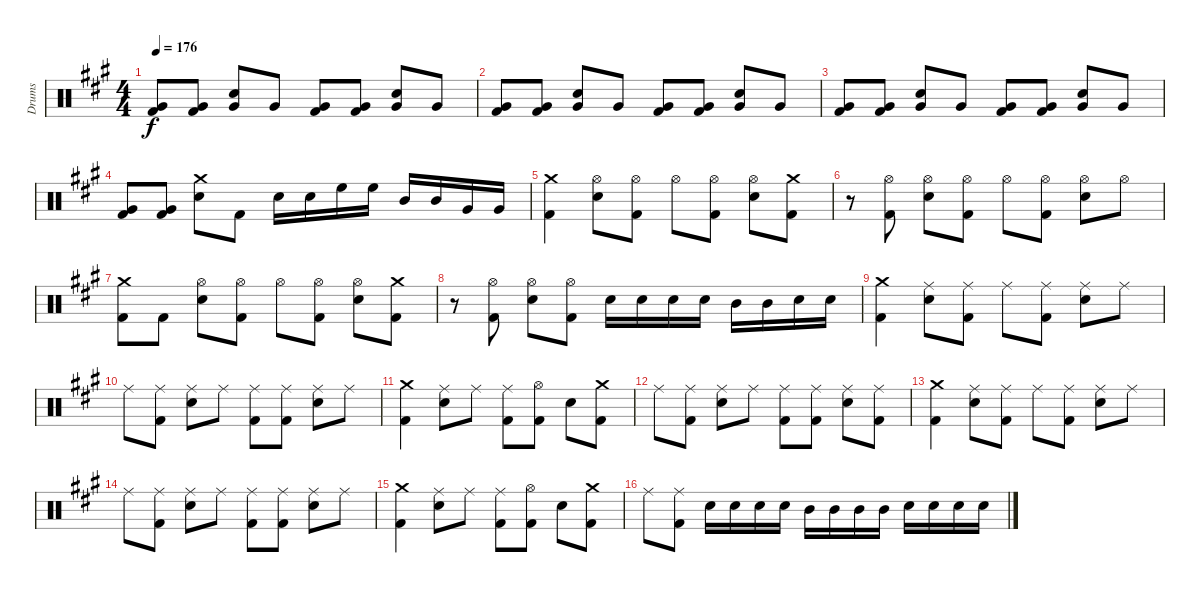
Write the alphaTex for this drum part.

\track ("Drums" "Drums") {instrument percussion}
\staff {score}
\articulation defaults
\ts (4 4)
\tempo 176
\clef neutral
\ks a
("Very Low Tom (hit)" "Kick (hit) 2").8{dy f} ("Very Low Tom (hit)" "Kick (hit) 2").8 ("Electric Snare (hit)" "Very Low Tom (hit)").8 "Very Low Tom (hit)".8 ("Very Low Tom (hit)" "Kick (hit) 2").8 ("Very Low Tom (hit)" "Kick (hit) 2").8 ("Electric Snare (hit)" "Very Low Tom (hit)").8 "Very Low Tom (hit)".8 |
("Very Low Tom (hit)" "Kick (hit) 2").8 ("Very Low Tom (hit)" "Kick (hit) 2").8 ("Electric Snare (hit)" "Very Low Tom (hit)").8 "Very Low Tom (hit)".8 ("Very Low Tom (hit)" "Kick (hit) 2").8 ("Very Low Tom (hit)" "Kick (hit) 2").8 ("Electric Snare (hit)" "Very Low Tom (hit)").8 "Very Low Tom (hit)".8 |
("Very Low Tom (hit)" "Kick (hit) 2").8 ("Very Low Tom (hit)" "Kick (hit) 2").8 ("Electric Snare (hit)" "Very Low Tom (hit)").8 "Very Low Tom (hit)".8 ("Very Low Tom (hit)" "Kick (hit) 2").8 ("Very Low Tom (hit)" "Kick (hit) 2").8 ("Electric Snare (hit)" "Very Low Tom (hit)").8 "Very Low Tom (hit)".8 |
("Very Low Tom (hit)" "Kick (hit) 2").8 ("Very Low Tom (hit)" "Kick (hit) 2").8 ("Crash medium (hit)" "Electric Snare (hit)").8 "Kick (hit) 2".8 "Electric Snare (hit)".16 "Electric Snare (hit)".16 "High Floor Tom (hit)".16 "High Floor Tom (hit)".16 "Mid Tom (hit)".16 "Mid Tom (hit)".16 "Very Low Tom (hit)".16 "Very Low Tom (hit)".16 |
("Crash medium (hit)" "Kick (hit) 2").4 ("Hi-Hat (open)" "Electric Snare (hit)").8 ("Hi-Hat (open)" "Kick (hit) 2").8 "Hi-Hat (open)".8 ("Hi-Hat (open)" "Kick (hit) 2").8 ("Hi-Hat (open)" "Electric Snare (hit)").8 ("Crash medium (hit)" "Kick (hit) 2").8 |
r.8 ("Hi-Hat (open)" "Kick (hit) 2").8 ("Hi-Hat (open)" "Electric Snare (hit)").8 ("Hi-Hat (open)" "Kick (hit) 2").8 "Hi-Hat (open)".8 ("Hi-Hat (open)" "Kick (hit) 2").8 ("Hi-Hat (open)" "Electric Snare (hit)").8 "Hi-Hat (open)".8 |
("Crash medium (hit)" "Kick (hit) 2").8 "Kick (hit) 2".8 ("Hi-Hat (open)" "Electric Snare (hit)").8 ("Hi-Hat (open)" "Kick (hit) 2").8 "Hi-Hat (open)".8 ("Hi-Hat (open)" "Kick (hit) 2").8 ("Hi-Hat (open)" "Electric Snare (hit)").8 ("Crash medium (hit)" "Kick (hit) 2").8 |
r.8 ("Hi-Hat (open)" "Kick (hit) 2").8 ("Hi-Hat (open)" "Electric Snare (hit)").8 ("Hi-Hat (open)" "Kick (hit) 2").8 "Electric Snare (hit)".16 "Electric Snare (hit)".16 "Electric Snare (hit)".16 "Electric Snare (hit)".16 "Mid Tom (hit)".16 "Mid Tom (hit)".16 "Electric Snare (hit)".16 "Electric Snare (hit)".16 |
("Crash medium (hit)" "Kick (hit) 2").4 ("Ride (middle)" "Electric Snare (hit)").8 ("Ride (middle)" "Kick (hit) 2").8 "Ride (middle)".8 ("Ride (middle)" "Kick (hit) 2").8 ("Ride (middle)" "Electric Snare (hit)").8 "Ride (middle)".8 |
"Ride (middle)".8 ("Ride (middle)" "Kick (hit) 2").8 ("Ride (middle)" "Electric Snare (hit)").8 "Ride (middle)".8 ("Ride (middle)" "Kick (hit) 2").8 ("Ride (middle)" "Kick (hit) 2").8 ("Ride (middle)" "Electric Snare (hit)").8 "Ride (middle)".8 |
("Crash medium (hit)" "Kick (hit) 2").4 ("Ride (middle)" "Electric Snare (hit)").8 "Ride (middle)".8 ("Ride (middle)" "Kick (hit) 2").8 ("Hi-Hat (open)" "Kick (hit) 2").8 "Electric Snare (hit)".8 ("Crash medium (hit)" "Kick (hit) 2").8 |
"Ride (middle)".8 ("Ride (middle)" "Kick (hit) 2").8 ("Ride (middle)" "Electric Snare (hit)").8 "Ride (middle)".8 ("Ride (middle)" "Kick (hit) 2").8 ("Ride (middle)" "Kick (hit) 2").8 ("Ride (middle)" "Electric Snare (hit)").8 ("Ride (middle)" "Kick (hit) 2").8 |
("Crash medium (hit)" "Kick (hit) 2").4 ("Ride (middle)" "Electric Snare (hit)").8 ("Ride (middle)" "Kick (hit) 2").8 "Ride (middle)".8 ("Ride (middle)" "Kick (hit) 2").8 ("Ride (middle)" "Electric Snare (hit)").8 "Ride (middle)".8 |
"Ride (middle)".8 ("Ride (middle)" "Kick (hit) 2").8 ("Ride (middle)" "Electric Snare (hit)").8 "Ride (middle)".8 ("Ride (middle)" "Kick (hit) 2").8 ("Ride (middle)" "Kick (hit) 2").8 ("Ride (middle)" "Electric Snare (hit)").8 "Ride (middle)".8 |
("Crash medium (hit)" "Kick (hit) 2").4 ("Ride (middle)" "Electric Snare (hit)").8 "Ride (middle)".8 ("Ride (middle)" "Kick (hit) 2").8 ("Hi-Hat (open)" "Kick (hit) 2").8 "Electric Snare (hit)".8 ("Crash medium (hit)" "Kick (hit) 2").8 |
"Ride (middle)".8 ("Ride (middle)" "Kick (hit) 2").8 "Electric Snare (hit)".16 "Electric Snare (hit)".16 "Electric Snare (hit)".16 "Electric Snare (hit)".16 "Mid Tom (hit)".16 "Mid Tom (hit)".16 "Mid Tom (hit)".16 "Mid Tom (hit)".16 "Electric Snare (hit)".16 "Electric Snare (hit)".16 "Electric Snare (hit)".16 "Electric Snare (hit)".16
